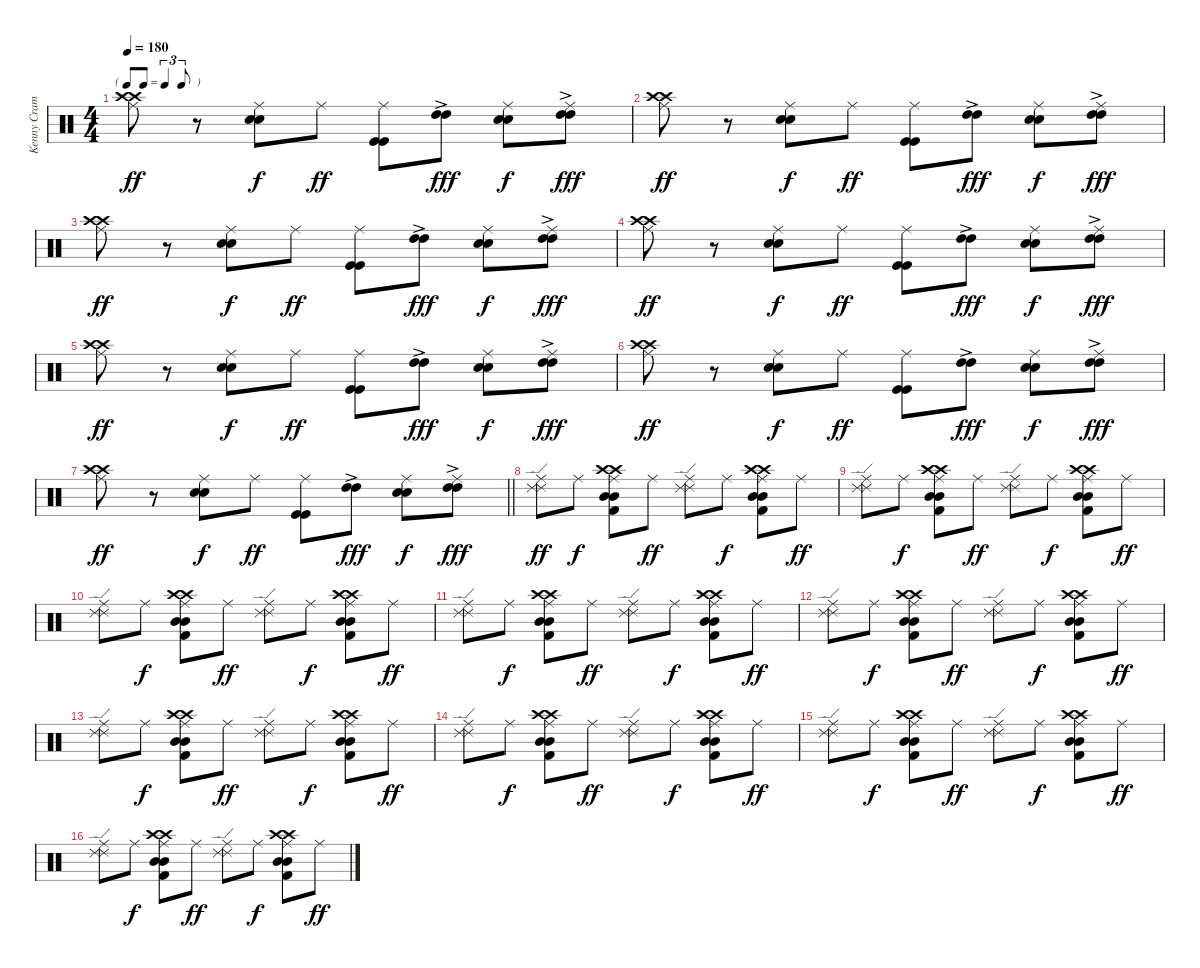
\track ("Kenny Cramme" "Kenny Cram") {instrument percussion}
\staff {score}
\articulation defaults
\ts (4 4)
\tf triplet8th
\tempo 180
\clef neutral
\ks c
("Ride (middle)" "Crash high (hit)" "Crash high (hit)").8{dy ff} r.8 ("Ride (middle)" "Snare (hit) 2" "Snare (hit) 2").8{dy f} "Ride (middle)".8{dy ff} ("Ride (middle)" "Kick (hit)" "Kick (hit)").8 ("High Tom (hit)"{ac} "High Tom (hit)"{ac}).8{dy fff} ("Ride (middle)" "Snare (hit) 2" "Snare (hit) 2").8{dy f} ("Ride (middle)" "High Tom (hit)"{ac} "High Tom (hit)"{ac}).8{dy fff} |
("Ride (middle)" "Crash high (hit)" "Crash high (hit)").8{dy ff} r.8 ("Ride (middle)" "Snare (hit) 2" "Snare (hit) 2").8{dy f} "Ride (middle)".8{dy ff} ("Ride (middle)" "Kick (hit)" "Kick (hit)").8 ("High Tom (hit)"{ac} "High Tom (hit)"{ac}).8{dy fff} ("Ride (middle)" "Snare (hit) 2" "Snare (hit) 2").8{dy f} ("Ride (middle)" "High Tom (hit)"{ac} "High Tom (hit)"{ac}).8{dy fff} |
("Ride (middle)" "Crash high (hit)" "Crash high (hit)").8{dy ff} r.8 ("Ride (middle)" "Snare (hit) 2" "Snare (hit) 2").8{dy f} "Ride (middle)".8{dy ff} ("Ride (middle)" "Kick (hit)" "Kick (hit)").8 ("High Tom (hit)"{ac} "High Tom (hit)"{ac}).8{dy fff} ("Ride (middle)" "Snare (hit) 2" "Snare (hit) 2").8{dy f} ("Ride (middle)" "High Tom (hit)"{ac} "High Tom (hit)"{ac}).8{dy fff} |
("Ride (middle)" "Crash high (hit)" "Crash high (hit)").8{dy ff} r.8 ("Ride (middle)" "Snare (hit) 2" "Snare (hit) 2").8{dy f} "Ride (middle)".8{dy ff} ("Ride (middle)" "Kick (hit)" "Kick (hit)").8 ("High Tom (hit)"{ac} "High Tom (hit)"{ac}).8{dy fff} ("Ride (middle)" "Snare (hit) 2" "Snare (hit) 2").8{dy f} ("Ride (middle)" "High Tom (hit)"{ac} "High Tom (hit)"{ac}).8{dy fff} |
("Ride (middle)" "Crash high (hit)" "Crash high (hit)").8{dy ff} r.8 ("Ride (middle)" "Snare (hit) 2" "Snare (hit) 2").8{dy f} "Ride (middle)".8{dy ff} ("Ride (middle)" "Kick (hit)" "Kick (hit)").8 ("High Tom (hit)"{ac} "High Tom (hit)"{ac}).8{dy fff} ("Ride (middle)" "Snare (hit) 2" "Snare (hit) 2").8{dy f} ("Ride (middle)" "High Tom (hit)"{ac} "High Tom (hit)"{ac}).8{dy fff} |
("Ride (middle)" "Crash high (hit)" "Crash high (hit)").8{dy ff} r.8 ("Ride (middle)" "Snare (hit) 2" "Snare (hit) 2").8{dy f} "Ride (middle)".8{dy ff} ("Ride (middle)" "Kick (hit)" "Kick (hit)").8 ("High Tom (hit)"{ac} "High Tom (hit)"{ac}).8{dy fff} ("Ride (middle)" "Snare (hit) 2" "Snare (hit) 2").8{dy f} ("Ride (middle)" "High Tom (hit)"{ac} "High Tom (hit)"{ac}).8{dy fff} |
\barLineRight lightlight
("Ride (middle)" "Crash high (hit)" "Crash high (hit)").8{dy ff} r.8 ("Ride (middle)" "Snare (hit) 2" "Snare (hit) 2").8{dy f} "Ride (middle)".8{dy ff} ("Ride (middle)" "Kick (hit)" "Kick (hit)").8 ("High Tom (hit)"{ac} "High Tom (hit)"{ac}).8{dy fff} ("Ride (middle)" "Snare (hit) 2" "Snare (hit) 2").8{dy f} ("Ride (middle)" "High Tom (hit)"{ac} "High Tom (hit)"{ac}).8{dy fff} |
("Ride (middle)" "Ride (edge) 2" "Ride (edge) 2").8{dy ff} "Ride (middle)".8{dy f} ("Ride (middle)" "Mid Tom (hit)" "Crash high (hit)" "Crash high (hit)" "Kick (hit) 2" "Mid Tom (hit)").8 "Ride (middle)".8{dy ff} ("Ride (middle)" "Ride (edge) 2" "Ride (edge) 2").8 "Ride (middle)".8{dy f} ("Ride (middle)" "Mid Tom (hit)" "Crash high (hit)" "Crash high (hit)" "Kick (hit) 2" "Mid Tom (hit)").8 "Ride (middle)".8{dy ff} |
("Ride (middle)" "Ride (edge) 2" "Ride (edge) 2").8 "Ride (middle)".8{dy f} ("Ride (middle)" "Mid Tom (hit)" "Crash high (hit)" "Crash high (hit)" "Kick (hit) 2" "Mid Tom (hit)").8 "Ride (middle)".8{dy ff} ("Ride (middle)" "Ride (edge) 2" "Ride (edge) 2").8 "Ride (middle)".8{dy f} ("Ride (middle)" "Mid Tom (hit)" "Crash high (hit)" "Crash high (hit)" "Kick (hit) 2" "Mid Tom (hit)").8 "Ride (middle)".8{dy ff} |
("Ride (middle)" "Ride (edge) 2" "Ride (edge) 2").8 "Ride (middle)".8{dy f} ("Ride (middle)" "Mid Tom (hit)" "Crash high (hit)" "Crash high (hit)" "Kick (hit) 2" "Mid Tom (hit)").8 "Ride (middle)".8{dy ff} ("Ride (middle)" "Ride (edge) 2" "Ride (edge) 2").8 "Ride (middle)".8{dy f} ("Ride (middle)" "Mid Tom (hit)" "Crash high (hit)" "Crash high (hit)" "Kick (hit) 2" "Mid Tom (hit)").8 "Ride (middle)".8{dy ff} |
("Ride (middle)" "Ride (edge) 2" "Ride (edge) 2").8 "Ride (middle)".8{dy f} ("Ride (middle)" "Mid Tom (hit)" "Crash high (hit)" "Crash high (hit)" "Kick (hit) 2" "Mid Tom (hit)").8 "Ride (middle)".8{dy ff} ("Ride (middle)" "Ride (edge) 2" "Ride (edge) 2").8 "Ride (middle)".8{dy f} ("Ride (middle)" "Mid Tom (hit)" "Crash high (hit)" "Crash high (hit)" "Kick (hit) 2" "Mid Tom (hit)").8 "Ride (middle)".8{dy ff} |
("Ride (middle)" "Ride (edge) 2" "Ride (edge) 2").8 "Ride (middle)".8{dy f} ("Ride (middle)" "Mid Tom (hit)" "Crash high (hit)" "Crash high (hit)" "Kick (hit) 2" "Mid Tom (hit)").8 "Ride (middle)".8{dy ff} ("Ride (middle)" "Ride (edge) 2" "Ride (edge) 2").8 "Ride (middle)".8{dy f} ("Ride (middle)" "Mid Tom (hit)" "Crash high (hit)" "Crash high (hit)" "Kick (hit) 2" "Mid Tom (hit)").8 "Ride (middle)".8{dy ff} |
("Ride (middle)" "Ride (edge) 2" "Ride (edge) 2").8 "Ride (middle)".8{dy f} ("Ride (middle)" "Mid Tom (hit)" "Crash high (hit)" "Crash high (hit)" "Kick (hit) 2" "Mid Tom (hit)").8 "Ride (middle)".8{dy ff} ("Ride (middle)" "Ride (edge) 2" "Ride (edge) 2").8 "Ride (middle)".8{dy f} ("Ride (middle)" "Mid Tom (hit)" "Crash high (hit)" "Crash high (hit)" "Kick (hit) 2" "Mid Tom (hit)").8 "Ride (middle)".8{dy ff} |
("Ride (middle)" "Ride (edge) 2" "Ride (edge) 2").8 "Ride (middle)".8{dy f} ("Ride (middle)" "Mid Tom (hit)" "Crash high (hit)" "Crash high (hit)" "Kick (hit) 2" "Mid Tom (hit)").8 "Ride (middle)".8{dy ff} ("Ride (middle)" "Ride (edge) 2" "Ride (edge) 2").8 "Ride (middle)".8{dy f} ("Ride (middle)" "Mid Tom (hit)" "Crash high (hit)" "Crash high (hit)" "Kick (hit) 2" "Mid Tom (hit)").8 "Ride (middle)".8{dy ff} |
("Ride (middle)" "Ride (edge) 2" "Ride (edge) 2").8 "Ride (middle)".8{dy f} ("Ride (middle)" "Mid Tom (hit)" "Crash high (hit)" "Crash high (hit)" "Kick (hit) 2" "Mid Tom (hit)").8 "Ride (middle)".8{dy ff} ("Ride (middle)" "Ride (edge) 2" "Ride (edge) 2").8 "Ride (middle)".8{dy f} ("Ride (middle)" "Mid Tom (hit)" "Crash high (hit)" "Crash high (hit)" "Kick (hit) 2" "Mid Tom (hit)").8 "Ride (middle)".8{dy ff} |
("Ride (middle)" "Ride (edge) 2" "Ride (edge) 2").8 "Ride (middle)".8{dy f} ("Ride (middle)" "Mid Tom (hit)" "Crash high (hit)" "Crash high (hit)" "Kick (hit) 2" "Mid Tom (hit)").8 "Ride (middle)".8{dy ff} ("Ride (middle)" "Ride (edge) 2" "Ride (edge) 2").8 "Ride (middle)".8{dy f} ("Ride (middle)" "Mid Tom (hit)" "Crash high (hit)" "Crash high (hit)" "Kick (hit) 2" "Mid Tom (hit)").8 "Ride (middle)".8{dy ff}
